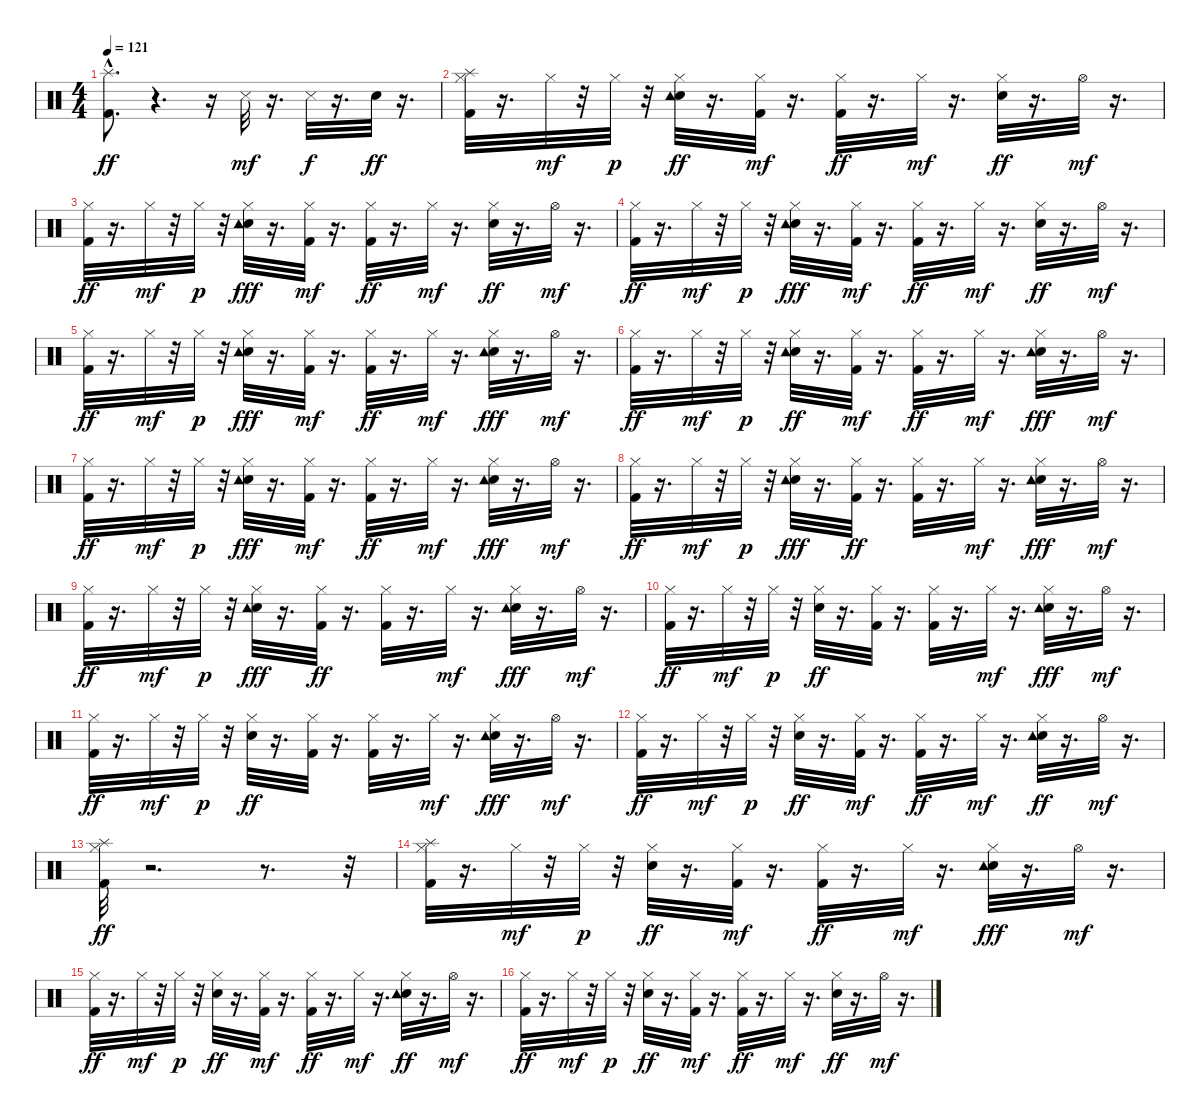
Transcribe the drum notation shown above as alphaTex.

\track "" {instrument percussion}
\staff {score}
\articulation defaults
\ts (4 4)
\tempo 121
\clef neutral
\ks c
("Kick (hit) 2"{hac} "Splash (hit)").8{d dy ff} r.4{d} r.16 "Snare (side stick) 3".32{dy mf} r.16{d} "Snare (side stick) 3".32{dy f} r.16{d} "Electric Snare (hit)".32{dy ff} r.16{d} |
("Kick (hit) 2" "Hi-Hat (closed)" "Splash (hit)").32 r.16{d} "Hi-Hat (closed)".32{dy mf} r.32 "Hi-Hat (closed)".32{dy p} r.32 ("Electric Snare (hit)" "Hi-Hat (closed)" "Tambourine (hit)").32{dy ff} r.16{d} ("Kick (hit) 2" "Hi-Hat (closed)").32{dy mf} r.16{d} ("Kick (hit) 2" "Hi-Hat (closed)").32{dy ff} r.16{d} "Hi-Hat (closed)".32{dy mf} r.16{d} ("Electric Snare (hit)" "Hi-Hat (closed)").32{dy ff} r.16{d} "Hi-Hat (open)".32{dy mf} r.16{d} |
("Hi-Hat (closed)" "Kick (hit) 2").32{dy ff} r.16{d} "Hi-Hat (closed)".32{dy mf} r.32 "Hi-Hat (closed)".32{dy p} r.32 ("Electric Snare (hit)" "Hi-Hat (closed)" "Tambourine (hit)").32{dy fff} r.16{d} ("Kick (hit) 2" "Hi-Hat (closed)").32{dy mf} r.16{d} ("Kick (hit) 2" "Hi-Hat (closed)").32{dy ff} r.16{d} "Hi-Hat (closed)".32{dy mf} r.16{d} ("Electric Snare (hit)" "Hi-Hat (closed)").32{dy ff} r.16{d} "Hi-Hat (open)".32{dy mf} r.16{d} |
("Hi-Hat (closed)" "Kick (hit) 2").32{dy ff} r.16{d} "Hi-Hat (closed)".32{dy mf} r.32 "Hi-Hat (closed)".32{dy p} r.32 ("Electric Snare (hit)" "Hi-Hat (closed)" "Tambourine (hit)").32{dy fff} r.16{d} ("Kick (hit) 2" "Hi-Hat (closed)").32{dy mf} r.16{d} ("Kick (hit) 2" "Hi-Hat (closed)").32{dy ff} r.16{d} "Hi-Hat (closed)".32{dy mf} r.16{d} ("Electric Snare (hit)" "Hi-Hat (closed)").32{dy ff} r.16{d} "Hi-Hat (open)".32{dy mf} r.16{d} |
("Kick (hit) 2" "Hi-Hat (closed)").32{dy ff} r.16{d} "Hi-Hat (closed)".32{dy mf} r.32 "Hi-Hat (closed)".32{dy p} r.32 ("Electric Snare (hit)" "Hi-Hat (closed)" "Tambourine (hit)").32{dy fff} r.16{d} ("Kick (hit) 2" "Hi-Hat (closed)").32{dy mf} r.16{d} ("Kick (hit) 2" "Hi-Hat (closed)").32{dy ff} r.16{d} "Hi-Hat (closed)".32{dy mf} r.16{d} ("Electric Snare (hit)" "Hi-Hat (closed)" "Tambourine (hit)").32{dy fff} r.16{d} "Hi-Hat (open)".32{dy mf} r.16{d} |
("Kick (hit) 2" "Hi-Hat (closed)").32{dy ff} r.16{d} "Hi-Hat (closed)".32{dy mf} r.32 "Hi-Hat (closed)".32{dy p} r.32 ("Electric Snare (hit)" "Hi-Hat (closed)" "Tambourine (hit)").32{dy ff} r.16{d} ("Kick (hit) 2" "Hi-Hat (closed)").32{dy mf} r.16{d} ("Kick (hit) 2" "Hi-Hat (closed)").32{dy ff} r.16{d} "Hi-Hat (closed)".32{dy mf} r.16{d} ("Electric Snare (hit)" "Hi-Hat (closed)" "Tambourine (hit)").32{dy fff} r.16{d} "Hi-Hat (open)".32{dy mf} r.16{d} |
("Kick (hit) 2" "Hi-Hat (closed)").32{dy ff} r.16{d} "Hi-Hat (closed)".32{dy mf} r.32 "Hi-Hat (closed)".32{dy p} r.32 ("Electric Snare (hit)" "Hi-Hat (closed)" "Tambourine (hit)").32{dy fff} r.16{d} ("Kick (hit) 2" "Hi-Hat (closed)").32{dy mf} r.16{d} ("Kick (hit) 2" "Hi-Hat (closed)").32{dy ff} r.16{d} "Hi-Hat (closed)".32{dy mf} r.16{d} ("Electric Snare (hit)" "Hi-Hat (closed)" "Tambourine (hit)").32{dy fff} r.16{d} "Hi-Hat (open)".32{dy mf} r.16{d} |
("Kick (hit) 2" "Hi-Hat (closed)").32{dy ff} r.16{d} "Hi-Hat (closed)".32{dy mf} r.32 "Hi-Hat (closed)".32{dy p} r.32 ("Electric Snare (hit)" "Hi-Hat (closed)" "Tambourine (hit)").32{dy fff} r.16{d} ("Hi-Hat (closed)" "Kick (hit) 2").32{dy ff} r.16{d} ("Kick (hit) 2" "Hi-Hat (closed)").32 r.16{d} "Hi-Hat (closed)".32{dy mf} r.16{d} ("Electric Snare (hit)" "Hi-Hat (closed)" "Tambourine (hit)").32{dy fff} r.16{d} "Hi-Hat (open)".32{dy mf} r.16{d} |
("Kick (hit) 2" "Hi-Hat (closed)").32{dy ff} r.16{d} "Hi-Hat (closed)".32{dy mf} r.32 "Hi-Hat (closed)".32{dy p} r.32 ("Electric Snare (hit)" "Hi-Hat (closed)" "Tambourine (hit)").32{dy fff} r.16{d} ("Hi-Hat (closed)" "Kick (hit) 2").32{dy ff} r.16{d} ("Kick (hit) 2" "Hi-Hat (closed)").32 r.16{d} "Hi-Hat (closed)".32{dy mf} r.16{d} ("Electric Snare (hit)" "Hi-Hat (closed)" "Tambourine (hit)").32{dy fff} r.16{d} "Hi-Hat (open)".32{dy mf} r.16{d} |
("Kick (hit) 2" "Hi-Hat (closed)").32{dy ff} r.16{d} "Hi-Hat (closed)".32{dy mf} r.32 "Hi-Hat (closed)".32{dy p} r.32 ("Electric Snare (hit)" "Hi-Hat (closed)").32{dy ff} r.16{d} ("Hi-Hat (closed)" "Kick (hit) 2").32 r.16{d} ("Kick (hit) 2" "Hi-Hat (closed)").32 r.16{d} "Hi-Hat (closed)".32{dy mf} r.16{d} ("Electric Snare (hit)" "Hi-Hat (closed)" "Tambourine (hit)").32{dy fff} r.16{d} "Hi-Hat (open)".32{dy mf} r.16{d} |
("Kick (hit) 2" "Hi-Hat (closed)").32{dy ff} r.16{d} "Hi-Hat (closed)".32{dy mf} r.32 "Hi-Hat (closed)".32{dy p} r.32 ("Electric Snare (hit)" "Hi-Hat (closed)").32{dy ff} r.16{d} ("Hi-Hat (closed)" "Kick (hit) 2").32 r.16{d} ("Hi-Hat (closed)" "Kick (hit) 2").32 r.16{d} "Hi-Hat (closed)".32{dy mf} r.16{d} ("Electric Snare (hit)" "Hi-Hat (closed)" "Tambourine (hit)").32{dy fff} r.16{d} "Hi-Hat (open)".32{dy mf} r.16{d} |
("Kick (hit) 2" "Hi-Hat (closed)").32{dy ff} r.16{d} "Hi-Hat (closed)".32{dy mf} r.32 "Hi-Hat (closed)".32{dy p} r.32 ("Electric Snare (hit)" "Hi-Hat (closed)").32{dy ff} r.16{d} ("Kick (hit) 2" "Hi-Hat (closed)").32{dy mf} r.16{d} ("Hi-Hat (closed)" "Kick (hit) 2").32{dy ff} r.16{d} "Hi-Hat (closed)".32{dy mf} r.16{d} ("Electric Snare (hit)" "Hi-Hat (closed)" "Tambourine (hit)").32{dy ff} r.16{d} "Hi-Hat (open)".32{dy mf} r.16{d} |
("Kick (hit) 2" "Hi-Hat (closed)" "Splash (hit)").32{dy ff} r.2{d} r.8{d} r.32 |
("Kick (hit) 2" "Hi-Hat (closed)" "Splash (hit)").32 r.16{d} "Hi-Hat (closed)".32{dy mf} r.32 "Hi-Hat (closed)".32{dy p} r.32 ("Electric Snare (hit)" "Hi-Hat (closed)").32{dy ff} r.16{d} ("Kick (hit) 2" "Hi-Hat (closed)").32{dy mf} r.16{d} ("Hi-Hat (closed)" "Kick (hit) 2").32{dy ff} r.16{d} "Hi-Hat (closed)".32{dy mf} r.16{d} ("Electric Snare (hit)" "Hi-Hat (closed)" "Tambourine (hit)").32{dy fff} r.16{d} "Hi-Hat (open)".32{dy mf} r.16{d} |
("Kick (hit) 2" "Hi-Hat (closed)").32{dy ff} r.16{d} "Hi-Hat (closed)".32{dy mf} r.32 "Hi-Hat (closed)".32{dy p} r.32 ("Electric Snare (hit)" "Hi-Hat (closed)").32{dy ff} r.16{d} ("Kick (hit) 2" "Hi-Hat (closed)").32{dy mf} r.16{d} ("Kick (hit) 2" "Hi-Hat (closed)").32{dy ff} r.16{d} "Hi-Hat (closed)".32{dy mf} r.16{d} ("Electric Snare (hit)" "Hi-Hat (closed)" "Tambourine (hit)").32{dy ff} r.16{d} "Hi-Hat (open)".32{dy mf} r.16{d} |
("Kick (hit) 2" "Hi-Hat (closed)").32{dy ff} r.16{d} "Hi-Hat (closed)".32{dy mf} r.32 "Hi-Hat (closed)".32{dy p} r.32 ("Electric Snare (hit)" "Hi-Hat (closed)").32{dy ff} r.16{d} ("Kick (hit) 2" "Hi-Hat (closed)").32{dy mf} r.16{d} ("Kick (hit) 2" "Hi-Hat (closed)").32{dy ff} r.16{d} "Hi-Hat (closed)".32{dy mf} r.16{d} ("Electric Snare (hit)" "Hi-Hat (closed)").32{dy ff} r.16{d} "Hi-Hat (open)".32{dy mf} r.16{d}
